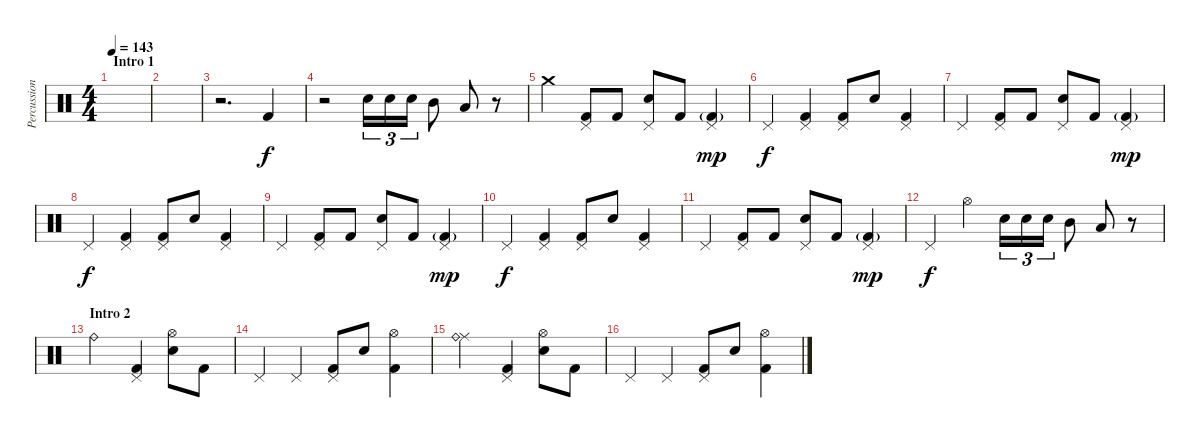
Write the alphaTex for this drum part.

\track ("Percussion" "Percussion") {instrument percussion}
\staff {score}
\articulation defaults
\ts (4 4)
\section ("" "Intro 1")
\tempo 143
\clef neutral
\ks c
|
|
r.2{d} "Kick (hit) 2".4 |
r.2 "Electric Snare (hit)".16{tu (3 2)} "Electric Snare (hit)".16{tu (3 2)} "Electric Snare (hit)".16{tu (3 2)} "Mid Tom (hit)".8 "Low Tom (hit)".8 r.8 |
"Crash medium (hit)".4 ("Pedal Hi-Hat (hit)" "Kick (hit) 2").8 "Kick (hit) 2".8 ("Pedal Hi-Hat (hit)" "Electric Snare (hit)").8 "Kick (hit) 2".8 ("Pedal Hi-Hat (hit)" "Kick (hit) 2"{g}).4{dy mp} |
"Pedal Hi-Hat (hit)".4{dy f} ("Pedal Hi-Hat (hit)" "Kick (hit) 2").4 ("Pedal Hi-Hat (hit)" "Kick (hit) 2").8 "Electric Snare (hit)".8 ("Pedal Hi-Hat (hit)" "Kick (hit) 2").4 |
"Pedal Hi-Hat (hit)".4 ("Pedal Hi-Hat (hit)" "Kick (hit) 2").8 "Kick (hit) 2".8 ("Pedal Hi-Hat (hit)" "Electric Snare (hit)").8 "Kick (hit) 2".8 ("Pedal Hi-Hat (hit)" "Kick (hit) 2"{g}).4{dy mp} |
"Pedal Hi-Hat (hit)".4{dy f} ("Pedal Hi-Hat (hit)" "Kick (hit) 2").4 ("Pedal Hi-Hat (hit)" "Kick (hit) 2").8 "Electric Snare (hit)".8 ("Pedal Hi-Hat (hit)" "Kick (hit) 2").4 |
"Pedal Hi-Hat (hit)".4 ("Pedal Hi-Hat (hit)" "Kick (hit) 2").8 "Kick (hit) 2".8 ("Pedal Hi-Hat (hit)" "Electric Snare (hit)").8 "Kick (hit) 2".8 ("Pedal Hi-Hat (hit)" "Kick (hit) 2"{g}).4{dy mp} |
"Pedal Hi-Hat (hit)".4{dy f} ("Pedal Hi-Hat (hit)" "Kick (hit) 2").4 ("Pedal Hi-Hat (hit)" "Kick (hit) 2").8 "Electric Snare (hit)".8 ("Pedal Hi-Hat (hit)" "Kick (hit) 2").4 |
"Pedal Hi-Hat (hit)".4 ("Pedal Hi-Hat (hit)" "Kick (hit) 2").8 "Kick (hit) 2".8 ("Pedal Hi-Hat (hit)" "Electric Snare (hit)").8 "Kick (hit) 2".8 ("Pedal Hi-Hat (hit)" "Kick (hit) 2"{g}).4{dy mp} |
"Pedal Hi-Hat (hit)".4{dy f} "Hi-Hat (open)".4 "Electric Snare (hit)".16{tu (3 2)} "Electric Snare (hit)".16{tu (3 2)} "Electric Snare (hit)".16{tu (3 2)} "Mid Tom (hit)".8 "Low Tom (hit)".8 r.8 |
\section ("" "Intro 2")
"Ride (bell)".2 ("Pedal Hi-Hat (hit)" "Kick (hit) 2").4 ("Hi-Hat (open)" "Electric Snare (hit)").8 "Kick (hit) 2".8 |
"Pedal Hi-Hat (hit)".4 "Pedal Hi-Hat (hit)".4 ("Pedal Hi-Hat (hit)" "Kick (hit) 2").8 "Electric Snare (hit)".8 ("Hi-Hat (open)" "Kick (hit) 2").4 |
("Ride (middle)" "Ride (bell)").2 ("Pedal Hi-Hat (hit)" "Kick (hit) 2").4 ("Hi-Hat (open)" "Electric Snare (hit)").8 "Kick (hit) 2".8 |
"Pedal Hi-Hat (hit)".4 "Pedal Hi-Hat (hit)".4 ("Pedal Hi-Hat (hit)" "Kick (hit) 2").8 "Electric Snare (hit)".8 ("Hi-Hat (open)" "Kick (hit) 2").4
